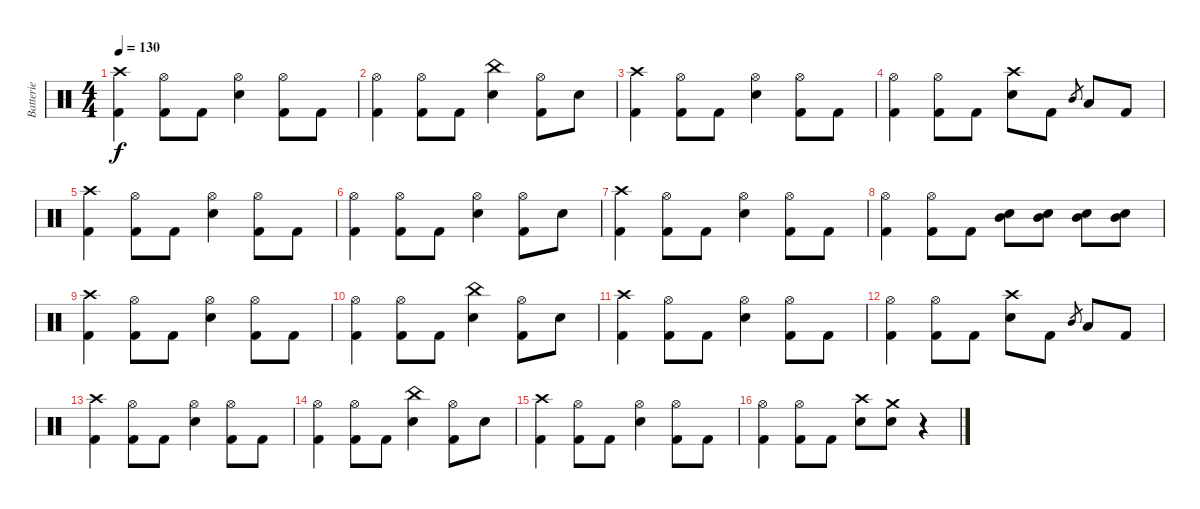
\track ("Batterie" "Batterie") {instrument percussion}
\staff {score}
\articulation defaults
\ts (4 4)
\tempo 130
\clef neutral
\ks c
("Crash high (hit)" "Kick (hit) 2").4{dy f volume 13} ("Hi-Hat (open)" "Kick (hit) 2").8 "Kick (hit) 2".8 ("Hi-Hat (open)" "Electric Snare (hit)").4 ("Hi-Hat (open)" "Kick (hit) 2").8 "Kick (hit) 2".8 |
("Hi-Hat (open)" "Kick (hit) 2").4 ("Hi-Hat (open)" "Kick (hit) 2").8 "Kick (hit) 2".8 ("China (hit)" "Electric Snare (hit)").4 ("Hi-Hat (open)" "Kick (hit) 2").8 "Electric Snare (hit)".8 |
("Crash high (hit)" "Kick (hit) 2").4 ("Hi-Hat (open)" "Kick (hit) 2").8 "Kick (hit) 2".8 ("Hi-Hat (open)" "Electric Snare (hit)").4 ("Hi-Hat (open)" "Kick (hit) 2").8 "Kick (hit) 2".8 |
("Hi-Hat (open)" "Kick (hit) 2").4 ("Hi-Hat (open)" "Kick (hit) 2").8 "Kick (hit) 2".8 ("Crash high (hit)" "Electric Snare (hit)").8 "Kick (hit) 2".8 "Mid Tom (hit)".8{gr} "Low Tom (hit)".8 "Kick (hit) 2".8 |
("Crash high (hit)" "Kick (hit) 2").4{volume 13} ("Hi-Hat (open)" "Kick (hit) 2").8 "Kick (hit) 2".8 ("Hi-Hat (open)" "Electric Snare (hit)").4 ("Hi-Hat (open)" "Kick (hit) 2").8 "Kick (hit) 2".8 |
("Hi-Hat (open)" "Kick (hit) 2").4 ("Hi-Hat (open)" "Kick (hit) 2").8 "Kick (hit) 2".8 ("Hi-Hat (open)" "Electric Snare (hit)").4 ("Hi-Hat (open)" "Kick (hit) 2").8 "Electric Snare (hit)".8 |
("Crash high (hit)" "Kick (hit) 2").4 ("Hi-Hat (open)" "Kick (hit) 2").8 "Kick (hit) 2".8 ("Hi-Hat (open)" "Electric Snare (hit)").4 ("Hi-Hat (open)" "Kick (hit) 2").8 "Kick (hit) 2".8 |
("Hi-Hat (open)" "Kick (hit) 2").4 ("Hi-Hat (open)" "Kick (hit) 2").8 "Kick (hit) 2".8 ("Mid Tom (hit)" "Electric Snare (hit)").8 ("Mid Tom (hit)" "Electric Snare (hit)").8 ("Mid Tom (hit)" "Electric Snare (hit)").8 ("Mid Tom (hit)" "Electric Snare (hit)").8 |
("Crash high (hit)" "Kick (hit) 2").4{volume 13} ("Hi-Hat (open)" "Kick (hit) 2").8 "Kick (hit) 2".8 ("Hi-Hat (open)" "Electric Snare (hit)").4 ("Hi-Hat (open)" "Kick (hit) 2").8 "Kick (hit) 2".8 |
("Hi-Hat (open)" "Kick (hit) 2").4 ("Hi-Hat (open)" "Kick (hit) 2").8 "Kick (hit) 2".8 ("China (hit)" "Electric Snare (hit)").4 ("Hi-Hat (open)" "Kick (hit) 2").8 "Electric Snare (hit)".8 |
("Crash high (hit)" "Kick (hit) 2").4 ("Hi-Hat (open)" "Kick (hit) 2").8 "Kick (hit) 2".8 ("Hi-Hat (open)" "Electric Snare (hit)").4 ("Hi-Hat (open)" "Kick (hit) 2").8 "Kick (hit) 2".8 |
("Hi-Hat (open)" "Kick (hit) 2").4 ("Hi-Hat (open)" "Kick (hit) 2").8 "Kick (hit) 2".8 ("Crash high (hit)" "Electric Snare (hit)").8 "Kick (hit) 2".8 "Mid Tom (hit)".8{gr} "Low Tom (hit)".8 "Kick (hit) 2".8 |
("Crash high (hit)" "Kick (hit) 2").4{volume 13} ("Hi-Hat (open)" "Kick (hit) 2").8 "Kick (hit) 2".8 ("Hi-Hat (open)" "Electric Snare (hit)").4 ("Hi-Hat (open)" "Kick (hit) 2").8 "Kick (hit) 2".8 |
("Hi-Hat (open)" "Kick (hit) 2").4 ("Hi-Hat (open)" "Kick (hit) 2").8 "Kick (hit) 2".8 ("China (hit)" "Electric Snare (hit)").4 ("Hi-Hat (open)" "Kick (hit) 2").8 "Electric Snare (hit)".8 |
("Crash high (hit)" "Kick (hit) 2").4 ("Hi-Hat (open)" "Kick (hit) 2").8 "Kick (hit) 2".8 ("Hi-Hat (open)" "Electric Snare (hit)").4 ("Hi-Hat (open)" "Kick (hit) 2").8 "Kick (hit) 2".8 |
("Hi-Hat (open)" "Kick (hit) 2").4 ("Hi-Hat (open)" "Kick (hit) 2").8 "Kick (hit) 2".8 ("Crash high (hit)" "Electric Snare (hit)").8 ("Crash medium (hit)" "Electric Snare (hit)").8 r.4
